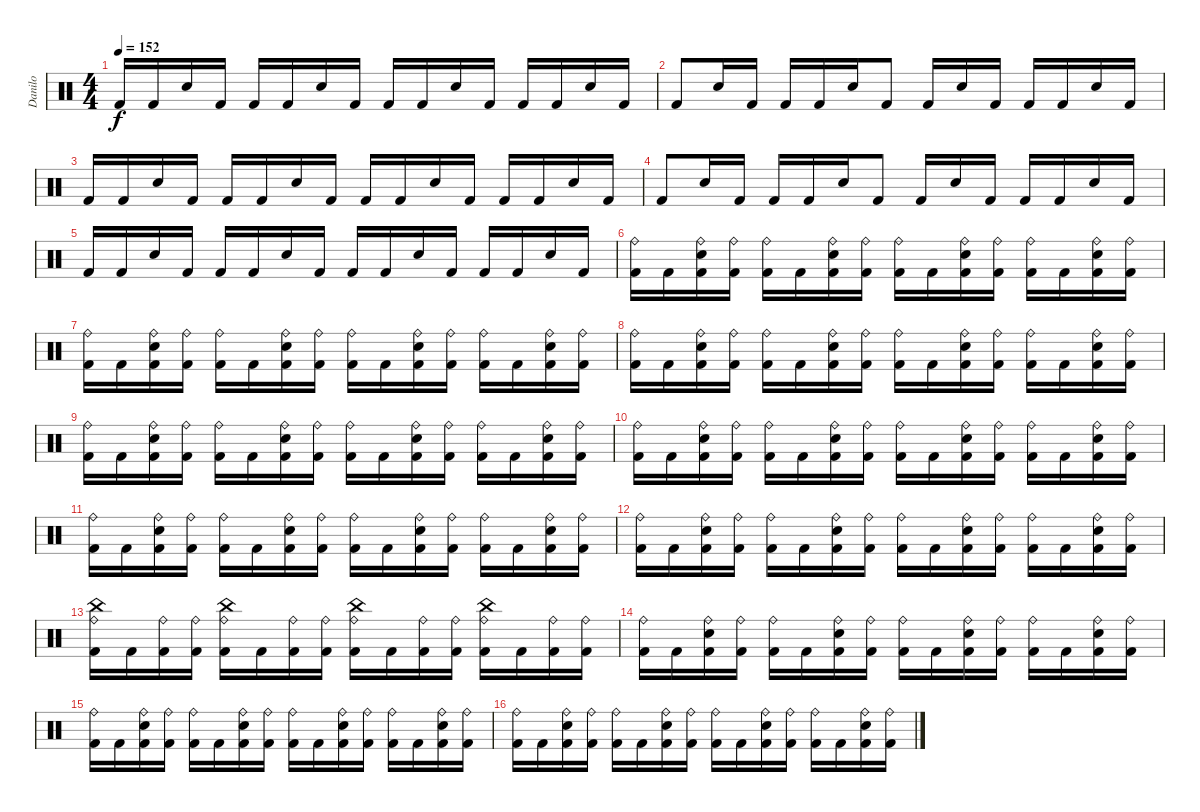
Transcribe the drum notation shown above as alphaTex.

\track ("Danilo" "Danilo") {instrument percussion}
\staff {score}
\articulation defaults
\ts (4 4)
\tempo 152
\clef neutral
\ks c "Kick (hit) 2".16{dy f} "Kick (hit) 2".16 "Snare (hit) 2".16 "Kick (hit) 2".16 "Kick (hit) 2".16 "Kick (hit) 2".16 "Snare (hit) 2".16 "Kick (hit) 2".16 "Kick (hit) 2".16 "Kick (hit) 2".16 "Snare (hit) 2".16 "Kick (hit) 2".16 "Kick (hit) 2".16 "Kick (hit) 2".16 "Snare (hit) 2".16 "Kick (hit) 2".16
|
"Kick (hit) 2".8 "Snare (hit) 2".16 "Kick (hit) 2".16 "Kick (hit) 2".16 "Kick (hit) 2".16 "Snare (hit) 2".16 "Kick (hit) 2".8 "Kick (hit) 2".16 "Snare (hit) 2".16 "Kick (hit) 2".16 "Kick (hit) 2".16 "Kick (hit) 2".16 "Snare (hit) 2".16 "Kick (hit) 2".16 |
"Kick (hit) 2".16 "Kick (hit) 2".16 "Snare (hit) 2".16 "Kick (hit) 2".16 "Kick (hit) 2".16 "Kick (hit) 2".16 "Snare (hit) 2".16 "Kick (hit) 2".16 "Kick (hit) 2".16 "Kick (hit) 2".16 "Snare (hit) 2".16 "Kick (hit) 2".16 "Kick (hit) 2".16 "Kick (hit) 2".16 "Snare (hit) 2".16 "Kick (hit) 2".16 |
"Kick (hit) 2".8 "Snare (hit) 2".16 "Kick (hit) 2".16 "Kick (hit) 2".16 "Kick (hit) 2".16 "Snare (hit) 2".16 "Kick (hit) 2".8 "Kick (hit) 2".16 "Snare (hit) 2".16 "Kick (hit) 2".16 "Kick (hit) 2".16 "Kick (hit) 2".16 "Snare (hit) 2".16 "Kick (hit) 2".16 |
"Kick (hit) 2".16 "Kick (hit) 2".16 "Snare (hit) 2".16 "Kick (hit) 2".16 "Kick (hit) 2".16 "Kick (hit) 2".16 "Snare (hit) 2".16 "Kick (hit) 2".16 "Kick (hit) 2".16 "Kick (hit) 2".16 "Snare (hit) 2".16 "Kick (hit) 2".16 "Kick (hit) 2".16 "Kick (hit) 2".16 "Snare (hit) 2".16 "Kick (hit) 2".16 |
("Ride (bell)" "Kick (hit) 2").16 "Kick (hit) 2".16 ("Ride (bell)" "Snare (hit) 2" "Kick (hit) 2").16 ("Ride (bell)" "Kick (hit) 2").16 ("Ride (bell)" "Kick (hit) 2").16 "Kick (hit) 2".16 ("Ride (bell)" "Snare (hit) 2" "Kick (hit) 2").16 ("Ride (bell)" "Kick (hit) 2").16 ("Ride (bell)" "Kick (hit) 2").16 "Kick (hit) 2".16 ("Ride (bell)" "Snare (hit) 2" "Kick (hit) 2").16 ("Ride (bell)" "Kick (hit) 2").16 ("Ride (bell)" "Kick (hit) 2").16 "Kick (hit) 2".16 ("Ride (bell)" "Snare (hit) 2" "Kick (hit) 2").16 ("Ride (bell)" "Kick (hit) 2").16 |
("Ride (bell)" "Kick (hit) 2").16 "Kick (hit) 2".16 ("Ride (bell)" "Snare (hit) 2" "Kick (hit) 2").16 ("Ride (bell)" "Kick (hit) 2").16 ("Ride (bell)" "Kick (hit) 2").16 "Kick (hit) 2".16 ("Ride (bell)" "Snare (hit) 2" "Kick (hit) 2").16 ("Ride (bell)" "Kick (hit) 2").16 ("Ride (bell)" "Kick (hit) 2").16 "Kick (hit) 2".16 ("Ride (bell)" "Snare (hit) 2" "Kick (hit) 2").16 ("Ride (bell)" "Kick (hit) 2").16 ("Ride (bell)" "Kick (hit) 2").16 "Kick (hit) 2".16 ("Ride (bell)" "Snare (hit) 2" "Kick (hit) 2").16 ("Ride (bell)" "Kick (hit) 2").16 |
("Ride (bell)" "Kick (hit) 2").16 "Kick (hit) 2".16 ("Ride (bell)" "Snare (hit) 2" "Kick (hit) 2").16 ("Ride (bell)" "Kick (hit) 2").16 ("Ride (bell)" "Kick (hit) 2").16 "Kick (hit) 2".16 ("Ride (bell)" "Snare (hit) 2" "Kick (hit) 2").16 ("Ride (bell)" "Kick (hit) 2").16 ("Ride (bell)" "Kick (hit) 2").16 "Kick (hit) 2".16 ("Ride (bell)" "Snare (hit) 2" "Kick (hit) 2").16 ("Ride (bell)" "Kick (hit) 2").16 ("Ride (bell)" "Kick (hit) 2").16 "Kick (hit) 2".16 ("Ride (bell)" "Snare (hit) 2" "Kick (hit) 2").16 ("Ride (bell)" "Kick (hit) 2").16 |
("Ride (bell)" "Kick (hit) 2").16 "Kick (hit) 2".16 ("Ride (bell)" "Snare (hit) 2" "Kick (hit) 2").16 ("Ride (bell)" "Kick (hit) 2").16 ("Ride (bell)" "Kick (hit) 2").16 "Kick (hit) 2".16 ("Ride (bell)" "Snare (hit) 2" "Kick (hit) 2").16 ("Ride (bell)" "Kick (hit) 2").16 ("Ride (bell)" "Kick (hit) 2").16 "Kick (hit) 2".16 ("Ride (bell)" "Snare (hit) 2" "Kick (hit) 2").16 ("Ride (bell)" "Kick (hit) 2").16 ("Ride (bell)" "Kick (hit) 2").16 "Kick (hit) 2".16 ("Ride (bell)" "Snare (hit) 2" "Kick (hit) 2").16 ("Ride (bell)" "Kick (hit) 2").16 |
("Ride (bell)" "Kick (hit) 2").16 "Kick (hit) 2".16 ("Ride (bell)" "Snare (hit) 2" "Kick (hit) 2").16 ("Ride (bell)" "Kick (hit) 2").16 ("Ride (bell)" "Kick (hit) 2").16 "Kick (hit) 2".16 ("Ride (bell)" "Snare (hit) 2" "Kick (hit) 2").16 ("Ride (bell)" "Kick (hit) 2").16 ("Ride (bell)" "Kick (hit) 2").16 "Kick (hit) 2".16 ("Ride (bell)" "Snare (hit) 2" "Kick (hit) 2").16 ("Ride (bell)" "Kick (hit) 2").16 ("Ride (bell)" "Kick (hit) 2").16 "Kick (hit) 2".16 ("Ride (bell)" "Snare (hit) 2" "Kick (hit) 2").16 ("Ride (bell)" "Kick (hit) 2").16 |
("Ride (bell)" "Kick (hit) 2").16 "Kick (hit) 2".16 ("Ride (bell)" "Snare (hit) 2" "Kick (hit) 2").16 ("Ride (bell)" "Kick (hit) 2").16 ("Ride (bell)" "Kick (hit) 2").16 "Kick (hit) 2".16 ("Ride (bell)" "Snare (hit) 2" "Kick (hit) 2").16 ("Ride (bell)" "Kick (hit) 2").16 ("Ride (bell)" "Kick (hit) 2").16 "Kick (hit) 2".16 ("Ride (bell)" "Snare (hit) 2" "Kick (hit) 2").16 ("Ride (bell)" "Kick (hit) 2").16 ("Ride (bell)" "Kick (hit) 2").16 "Kick (hit) 2".16 ("Ride (bell)" "Snare (hit) 2" "Kick (hit) 2").16 ("Ride (bell)" "Kick (hit) 2").16 |
("Ride (bell)" "Kick (hit) 2").16 "Kick (hit) 2".16 ("Ride (bell)" "Snare (hit) 2" "Kick (hit) 2").16 ("Ride (bell)" "Kick (hit) 2").16 ("Ride (bell)" "Kick (hit) 2").16 "Kick (hit) 2".16 ("Ride (bell)" "Snare (hit) 2" "Kick (hit) 2").16 ("Ride (bell)" "Kick (hit) 2").16 ("Ride (bell)" "Kick (hit) 2").16 "Kick (hit) 2".16 ("Ride (bell)" "Snare (hit) 2" "Kick (hit) 2").16 ("Ride (bell)" "Kick (hit) 2").16 ("Ride (bell)" "Kick (hit) 2").16 "Kick (hit) 2".16 ("Ride (bell)" "Snare (hit) 2" "Kick (hit) 2").16 ("Ride (bell)" "Kick (hit) 2").16 |
("Ride (bell)" "China (hit)" "Kick (hit) 2").16 "Kick (hit) 2".16 ("Ride (bell)" "Kick (hit) 2").16 ("Ride (bell)" "Kick (hit) 2").16 ("Ride (bell)" "China (hit)" "Kick (hit) 2").16 "Kick (hit) 2".16 ("Ride (bell)" "Kick (hit) 2").16 ("Ride (bell)" "Kick (hit) 2").16 ("Ride (bell)" "China (hit)" "Kick (hit) 2").16 "Kick (hit) 2".16 ("Ride (bell)" "Kick (hit) 2").16 ("Ride (bell)" "Kick (hit) 2").16 ("Ride (bell)" "China (hit)" "Kick (hit) 2").16 "Kick (hit) 2".16 ("Ride (bell)" "Kick (hit) 2").16 ("Ride (bell)" "Kick (hit) 2").16 |
("Ride (bell)" "Kick (hit) 2").16 "Kick (hit) 2".16 ("Ride (bell)" "Snare (hit) 2" "Kick (hit) 2").16 ("Ride (bell)" "Kick (hit) 2").16 ("Ride (bell)" "Kick (hit) 2").16 "Kick (hit) 2".16 ("Ride (bell)" "Snare (hit) 2" "Kick (hit) 2").16 ("Ride (bell)" "Kick (hit) 2").16 ("Ride (bell)" "Kick (hit) 2").16 "Kick (hit) 2".16 ("Ride (bell)" "Snare (hit) 2" "Kick (hit) 2").16 ("Ride (bell)" "Kick (hit) 2").16 ("Ride (bell)" "Kick (hit) 2").16 "Kick (hit) 2".16 ("Ride (bell)" "Snare (hit) 2" "Kick (hit) 2").16 ("Ride (bell)" "Kick (hit) 2").16 |
("Ride (bell)" "Kick (hit) 2").16 "Kick (hit) 2".16 ("Ride (bell)" "Snare (hit) 2" "Kick (hit) 2").16 ("Ride (bell)" "Kick (hit) 2").16 ("Ride (bell)" "Kick (hit) 2").16 "Kick (hit) 2".16 ("Ride (bell)" "Snare (hit) 2" "Kick (hit) 2").16 ("Ride (bell)" "Kick (hit) 2").16 ("Ride (bell)" "Kick (hit) 2").16 "Kick (hit) 2".16 ("Ride (bell)" "Snare (hit) 2" "Kick (hit) 2").16 ("Ride (bell)" "Kick (hit) 2").16 ("Ride (bell)" "Kick (hit) 2").16 "Kick (hit) 2".16 ("Ride (bell)" "Snare (hit) 2" "Kick (hit) 2").16 ("Ride (bell)" "Kick (hit) 2").16 |
("Ride (bell)" "Kick (hit) 2").16 "Kick (hit) 2".16 ("Ride (bell)" "Snare (hit) 2" "Kick (hit) 2").16 ("Ride (bell)" "Kick (hit) 2").16 ("Ride (bell)" "Kick (hit) 2").16 "Kick (hit) 2".16 ("Ride (bell)" "Snare (hit) 2" "Kick (hit) 2").16 ("Ride (bell)" "Kick (hit) 2").16 ("Ride (bell)" "Kick (hit) 2").16 "Kick (hit) 2".16 ("Ride (bell)" "Snare (hit) 2" "Kick (hit) 2").16 ("Ride (bell)" "Kick (hit) 2").16 ("Ride (bell)" "Kick (hit) 2").16 "Kick (hit) 2".16 ("Ride (bell)" "Snare (hit) 2" "Kick (hit) 2").16 ("Ride (bell)" "Kick (hit) 2").16
